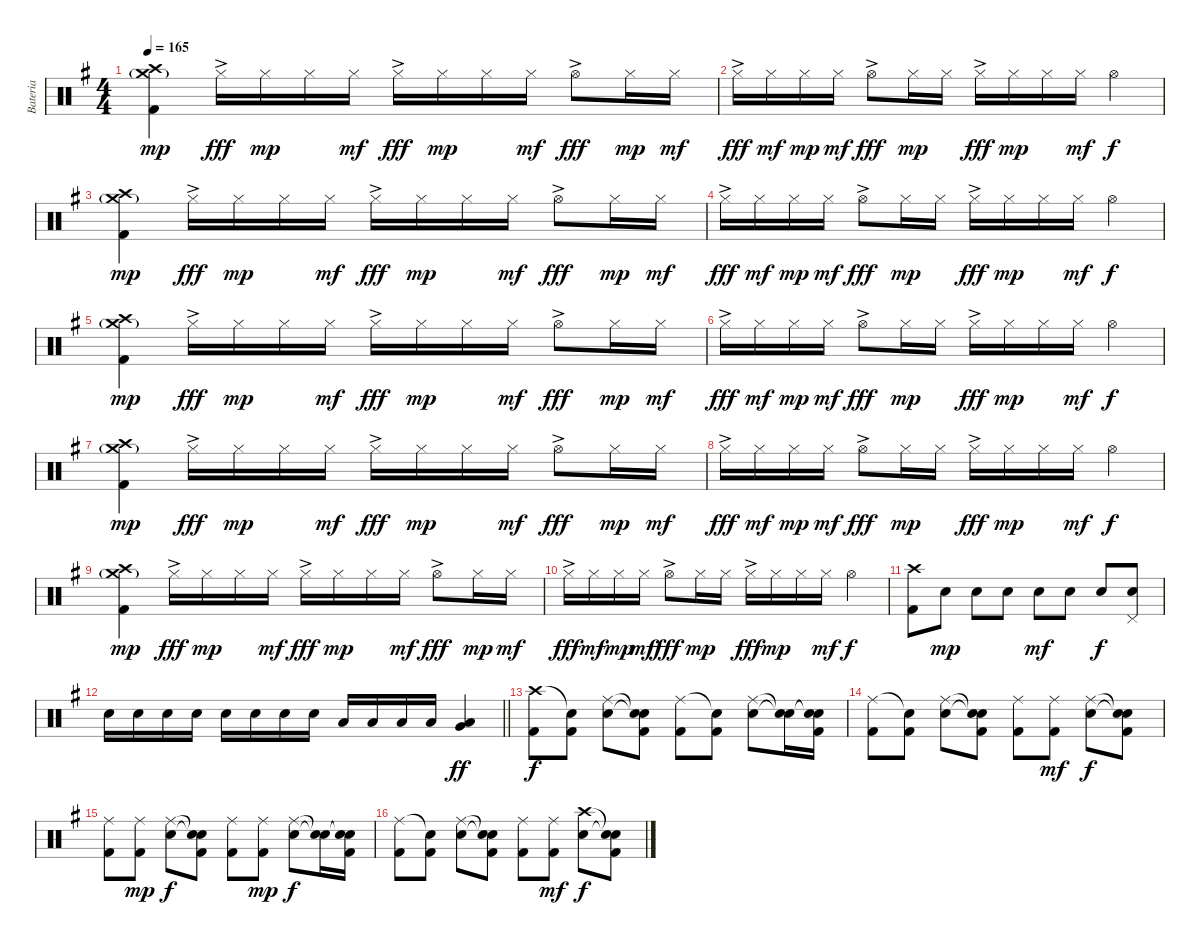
\track ("Bateria" "Bateria") {instrument percussion}
\staff {score}
\articulation defaults
\ts (4 4)
\tempo 165
\clef neutral
\ks g
("Crash high (hit)" "Crash medium (hit)"{g} "Kick (hit) 2").4{dy mp} "Hi-Hat (closed)"{ac}.16{dy fff} "Hi-Hat (closed)".16{dy mp} "Hi-Hat (closed)".16 "Hi-Hat (closed)".16{dy mf} "Hi-Hat (closed)"{ac}.16{dy fff} "Hi-Hat (closed)".16{dy mp} "Hi-Hat (closed)".16 "Hi-Hat (closed)".16{dy mf} "Hi-Hat (open)"{ac}.8{dy fff} "Hi-Hat (closed)".16{dy mp} "Hi-Hat (closed)".16{dy mf} |
"Hi-Hat (closed)"{ac}.16{dy fff} "Hi-Hat (closed)".16{dy mf} "Hi-Hat (closed)".16{dy mp} "Hi-Hat (closed)".16{dy mf} "Hi-Hat (open)"{ac}.8{dy fff} "Hi-Hat (closed)".16{dy mp} "Hi-Hat (closed)".16 "Hi-Hat (closed)"{ac}.16{dy fff} "Hi-Hat (closed)".16{dy mp} "Hi-Hat (closed)".16 "Hi-Hat (closed)".16{dy mf} "Hi-Hat (open)".4{dy f} |
("Crash high (hit)" "Crash medium (hit)"{g} "Kick (hit) 2").4{dy mp} "Hi-Hat (closed)"{ac}.16{dy fff} "Hi-Hat (closed)".16{dy mp} "Hi-Hat (closed)".16 "Hi-Hat (closed)".16{dy mf} "Hi-Hat (closed)"{ac}.16{dy fff} "Hi-Hat (closed)".16{dy mp} "Hi-Hat (closed)".16 "Hi-Hat (closed)".16{dy mf} "Hi-Hat (open)"{ac}.8{dy fff} "Hi-Hat (closed)".16{dy mp} "Hi-Hat (closed)".16{dy mf} |
"Hi-Hat (closed)"{ac}.16{dy fff} "Hi-Hat (closed)".16{dy mf} "Hi-Hat (closed)".16{dy mp} "Hi-Hat (closed)".16{dy mf} "Hi-Hat (open)"{ac}.8{dy fff} "Hi-Hat (closed)".16{dy mp} "Hi-Hat (closed)".16 "Hi-Hat (closed)"{ac}.16{dy fff} "Hi-Hat (closed)".16{dy mp} "Hi-Hat (closed)".16 "Hi-Hat (closed)".16{dy mf} "Hi-Hat (open)".4{dy f} |
("Crash high (hit)" "Crash medium (hit)"{g} "Kick (hit) 2").4{dy mp} "Hi-Hat (closed)"{ac}.16{dy fff} "Hi-Hat (closed)".16{dy mp} "Hi-Hat (closed)".16 "Hi-Hat (closed)".16{dy mf} "Hi-Hat (closed)"{ac}.16{dy fff} "Hi-Hat (closed)".16{dy mp} "Hi-Hat (closed)".16 "Hi-Hat (closed)".16{dy mf} "Hi-Hat (open)"{ac}.8{dy fff} "Hi-Hat (closed)".16{dy mp} "Hi-Hat (closed)".16{dy mf} |
"Hi-Hat (closed)"{ac}.16{dy fff} "Hi-Hat (closed)".16{dy mf} "Hi-Hat (closed)".16{dy mp} "Hi-Hat (closed)".16{dy mf} "Hi-Hat (open)"{ac}.8{dy fff} "Hi-Hat (closed)".16{dy mp} "Hi-Hat (closed)".16 "Hi-Hat (closed)"{ac}.16{dy fff} "Hi-Hat (closed)".16{dy mp} "Hi-Hat (closed)".16 "Hi-Hat (closed)".16{dy mf} "Hi-Hat (open)".4{dy f} |
("Crash high (hit)" "Crash medium (hit)"{g} "Kick (hit) 2").4{dy mp} "Hi-Hat (closed)"{ac}.16{dy fff} "Hi-Hat (closed)".16{dy mp} "Hi-Hat (closed)".16 "Hi-Hat (closed)".16{dy mf} "Hi-Hat (closed)"{ac}.16{dy fff} "Hi-Hat (closed)".16{dy mp} "Hi-Hat (closed)".16 "Hi-Hat (closed)".16{dy mf} "Hi-Hat (open)"{ac}.8{dy fff} "Hi-Hat (closed)".16{dy mp} "Hi-Hat (closed)".16{dy mf} |
"Hi-Hat (closed)"{ac}.16{dy fff} "Hi-Hat (closed)".16{dy mf} "Hi-Hat (closed)".16{dy mp} "Hi-Hat (closed)".16{dy mf} "Hi-Hat (open)"{ac}.8{dy fff} "Hi-Hat (closed)".16{dy mp} "Hi-Hat (closed)".16 "Hi-Hat (closed)"{ac}.16{dy fff} "Hi-Hat (closed)".16{dy mp} "Hi-Hat (closed)".16 "Hi-Hat (closed)".16{dy mf} "Hi-Hat (open)".4{dy f} |
("Crash high (hit)" "Crash medium (hit)"{g} "Kick (hit) 2").4{dy mp} "Hi-Hat (closed)"{ac}.16{dy fff} "Hi-Hat (closed)".16{dy mp} "Hi-Hat (closed)".16 "Hi-Hat (closed)".16{dy mf} "Hi-Hat (closed)"{ac}.16{dy fff} "Hi-Hat (closed)".16{dy mp} "Hi-Hat (closed)".16 "Hi-Hat (closed)".16{dy mf} "Hi-Hat (open)"{ac}.8{dy fff} "Hi-Hat (closed)".16{dy mp} "Hi-Hat (closed)".16{dy mf} |
"Hi-Hat (closed)"{ac}.16{dy fff} "Hi-Hat (closed)".16{dy mf} "Hi-Hat (closed)".16{dy mp} "Hi-Hat (closed)".16{dy mf} "Hi-Hat (open)"{ac}.8{dy fff} "Hi-Hat (closed)".16{dy mp} "Hi-Hat (closed)".16 "Hi-Hat (closed)"{ac}.16{dy fff} "Hi-Hat (closed)".16{dy mp} "Hi-Hat (closed)".16 "Hi-Hat (closed)".16{dy mf} "Hi-Hat (open)".4{dy f} |
("Crash high (hit)" "Kick (hit) 2").8 "Electric Snare (hit)".8{dy mp} "Electric Snare (hit)".8 "Electric Snare (hit)".8 "Electric Snare (hit)".8{dy mf} "Electric Snare (hit)".8 "Electric Snare (hit)".8{dy f} ("Electric Snare (hit)" "Pedal Hi-Hat (hit)").8 |
\barLineRight lightlight "Electric Snare (hit)".16 "Electric Snare (hit)".16 "Electric Snare (hit)".16 "Electric Snare (hit)".16 "Electric Snare (hit)".16 "Electric Snare (hit)".16 "Electric Snare (hit)".16 "Electric Snare (hit)".16 "Low Tom (hit)".16 "Low Tom (hit)".16 "Low Tom (hit)".16 "Low Tom (hit)".16
("Low Floor Tom (hit)" "Very Low Tom (hit)").4{dy ff} |
("Crash high (hit)" "Kick (hit) 2").8{dy f} ("Snare (hit)"{t} "Kick (hit) 2").8 ("Ride (middle)" "Electric Snare (hit)").8 ("Snare (hit)"{t} "Snare (hit)"{t} "Kick (hit) 2").8 ("Ride (middle)" "Kick (hit) 2").8 ("Snare (hit)"{t} "Kick (hit) 2").8 ("Ride (middle)" "Electric Snare (hit)").8 ("Snare (hit)"{t} "Snare (hit)"{t}).16 ("Snare (hit)"{t} "Snare (hit)"{t} "Kick (hit) 2").16 |
("Ride (middle)" "Kick (hit) 2").8 ("Snare (hit)"{t} "Kick (hit) 2").8 ("Ride (middle)" "Electric Snare (hit)").8 ("Snare (hit)"{t} "Snare (hit)"{t} "Kick (hit) 2").8 ("Ride (middle)" "Kick (hit) 2").8 ("Ride (middle)" "Kick (hit) 2").8{dy mf} ("Ride (middle)" "Electric Snare (hit)").8{dy f} ("Snare (hit)"{t} "Snare (hit)"{t} "Kick (hit) 2").8 |
("Ride (middle)" "Kick (hit) 2").8 ("Ride (middle)" "Kick (hit) 2").8{dy mp} ("Ride (middle)" "Electric Snare (hit)").8{dy f} ("Snare (hit)"{t} "Snare (hit)"{t} "Kick (hit) 2").8 ("Ride (middle)" "Kick (hit) 2").8 ("Ride (middle)" "Kick (hit) 2").8{dy mp} ("Ride (middle)" "Electric Snare (hit)").8{dy f} ("Snare (hit)"{t} "Snare (hit)"{t}).16 ("Snare (hit)"{t} "Snare (hit)"{t} "Kick (hit) 2").16 |
("Ride (middle)" "Kick (hit) 2").8 ("Snare (hit)"{t} "Kick (hit) 2").8 ("Ride (middle)" "Electric Snare (hit)").8 ("Snare (hit)"{t} "Snare (hit)"{t} "Kick (hit) 2").8 ("Ride (middle)" "Kick (hit) 2").8 ("Ride (middle)" "Kick (hit) 2").8{dy mf} ("Crash high (hit)" "Electric Snare (hit)").8{dy f} ("Snare (hit)"{t} "Snare (hit)"{t} "Kick (hit) 2").8
